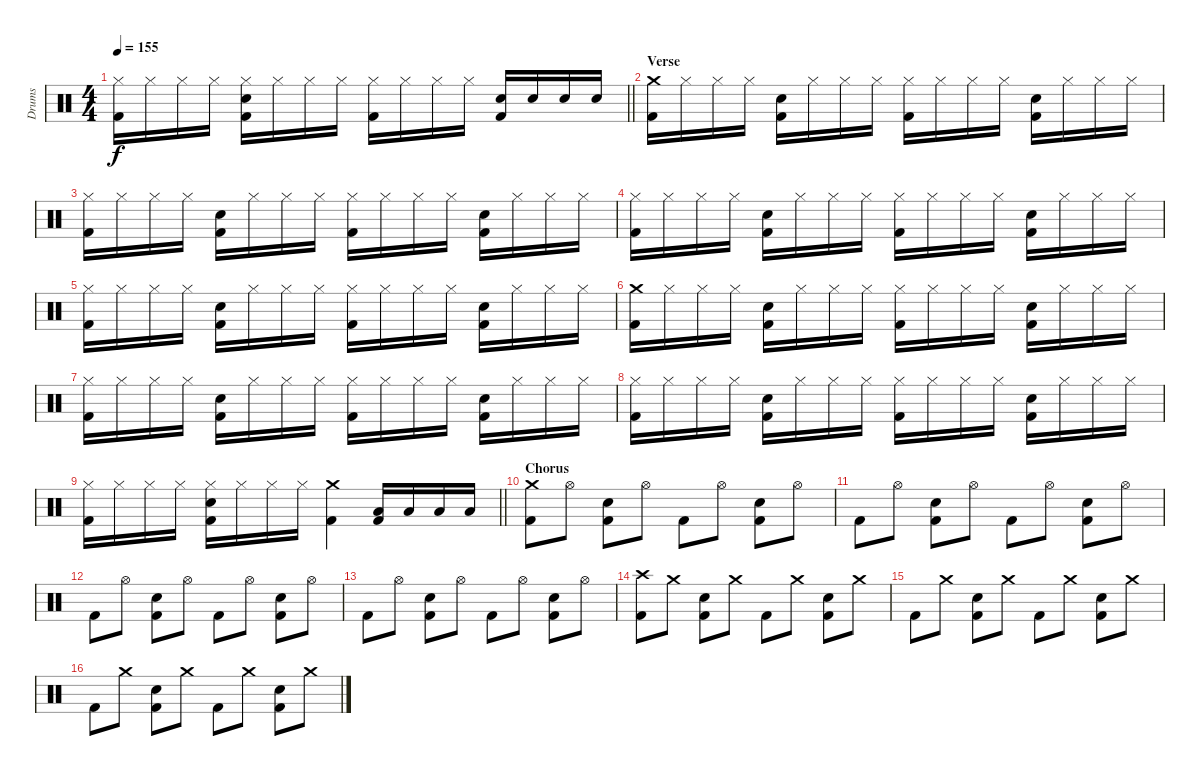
\track ("Drums" "Drums") {instrument percussion}
\staff {score}
\articulation defaults
\ts (4 4)
\tempo 155
\clef neutral
\barLineRight lightlight
\ks c
("Hi-Hat (closed)" "Kick (hit) 2").16{dy f} "Hi-Hat (closed)".16 "Hi-Hat (closed)".16 "Hi-Hat (closed)".16 ("Hi-Hat (closed)" "Electric Snare (hit)" "Kick (hit) 2").16 "Hi-Hat (closed)".16 "Hi-Hat (closed)".16 "Hi-Hat (closed)".16 ("Hi-Hat (closed)" "Kick (hit) 2").16 "Hi-Hat (closed)".16 "Hi-Hat (closed)".16 "Hi-Hat (closed)".16 ("Electric Snare (hit)" "Kick (hit) 2").16 "Electric Snare (hit)".16 "Electric Snare (hit)".16 "Electric Snare (hit)".16 |
\section ("" "Verse")
("Crash medium (hit)" "Kick (hit) 2").16 "Hi-Hat (closed)".16 "Hi-Hat (closed)".16 "Hi-Hat (closed)".16 ("Electric Snare (hit)" "Kick (hit) 2").16 "Hi-Hat (closed)".16 "Hi-Hat (closed)".16 "Hi-Hat (closed)".16 ("Hi-Hat (closed)" "Kick (hit) 2").16 "Hi-Hat (closed)".16 "Hi-Hat (closed)".16 "Hi-Hat (closed)".16 ("Electric Snare (hit)" "Kick (hit) 2").16 "Hi-Hat (closed)".16 "Hi-Hat (closed)".16 "Hi-Hat (closed)".16 |
("Hi-Hat (closed)" "Kick (hit) 2").16 "Hi-Hat (closed)".16 "Hi-Hat (closed)".16 "Hi-Hat (closed)".16 ("Electric Snare (hit)" "Kick (hit) 2").16 "Hi-Hat (closed)".16 "Hi-Hat (closed)".16 "Hi-Hat (closed)".16 ("Hi-Hat (closed)" "Kick (hit) 2").16 "Hi-Hat (closed)".16 "Hi-Hat (closed)".16 "Hi-Hat (closed)".16 ("Electric Snare (hit)" "Kick (hit) 2").16 "Hi-Hat (closed)".16 "Hi-Hat (closed)".16 "Hi-Hat (closed)".16 |
("Hi-Hat (closed)" "Kick (hit) 2").16 "Hi-Hat (closed)".16 "Hi-Hat (closed)".16 "Hi-Hat (closed)".16 ("Electric Snare (hit)" "Kick (hit) 2").16 "Hi-Hat (closed)".16 "Hi-Hat (closed)".16 "Hi-Hat (closed)".16 ("Hi-Hat (closed)" "Kick (hit) 2").16 "Hi-Hat (closed)".16 "Hi-Hat (closed)".16 "Hi-Hat (closed)".16 ("Electric Snare (hit)" "Kick (hit) 2").16 "Hi-Hat (closed)".16 "Hi-Hat (closed)".16 "Hi-Hat (closed)".16 |
("Hi-Hat (closed)" "Kick (hit) 2").16 "Hi-Hat (closed)".16 "Hi-Hat (closed)".16 "Hi-Hat (closed)".16 ("Electric Snare (hit)" "Kick (hit) 2").16 "Hi-Hat (closed)".16 "Hi-Hat (closed)".16 "Hi-Hat (closed)".16 ("Hi-Hat (closed)" "Kick (hit) 2").16 "Hi-Hat (closed)".16 "Hi-Hat (closed)".16 "Hi-Hat (closed)".16 ("Electric Snare (hit)" "Kick (hit) 2").16 "Hi-Hat (closed)".16 "Hi-Hat (closed)".16 "Hi-Hat (closed)".16 |
("Crash medium (hit)" "Kick (hit) 2").16 "Hi-Hat (closed)".16 "Hi-Hat (closed)".16 "Hi-Hat (closed)".16 ("Electric Snare (hit)" "Kick (hit) 2").16 "Hi-Hat (closed)".16 "Hi-Hat (closed)".16 "Hi-Hat (closed)".16 ("Hi-Hat (closed)" "Kick (hit) 2").16 "Hi-Hat (closed)".16 "Hi-Hat (closed)".16 "Hi-Hat (closed)".16 ("Electric Snare (hit)" "Kick (hit) 2").16 "Hi-Hat (closed)".16 "Hi-Hat (closed)".16 "Hi-Hat (closed)".16 |
("Hi-Hat (closed)" "Kick (hit) 2").16 "Hi-Hat (closed)".16 "Hi-Hat (closed)".16 "Hi-Hat (closed)".16 ("Electric Snare (hit)" "Kick (hit) 2").16 "Hi-Hat (closed)".16 "Hi-Hat (closed)".16 "Hi-Hat (closed)".16 ("Hi-Hat (closed)" "Kick (hit) 2").16 "Hi-Hat (closed)".16 "Hi-Hat (closed)".16 "Hi-Hat (closed)".16 ("Electric Snare (hit)" "Kick (hit) 2").16 "Hi-Hat (closed)".16 "Hi-Hat (closed)".16 "Hi-Hat (closed)".16 |
("Hi-Hat (closed)" "Kick (hit) 2").16 "Hi-Hat (closed)".16 "Hi-Hat (closed)".16 "Hi-Hat (closed)".16 ("Electric Snare (hit)" "Kick (hit) 2").16 "Hi-Hat (closed)".16 "Hi-Hat (closed)".16 "Hi-Hat (closed)".16 ("Hi-Hat (closed)" "Kick (hit) 2").16 "Hi-Hat (closed)".16 "Hi-Hat (closed)".16 "Hi-Hat (closed)".16 ("Electric Snare (hit)" "Kick (hit) 2").16 "Hi-Hat (closed)".16 "Hi-Hat (closed)".16 "Hi-Hat (closed)".16 |
\barLineRight lightlight
("Hi-Hat (closed)" "Kick (hit) 2").16 "Hi-Hat (closed)".16 "Hi-Hat (closed)".16 "Hi-Hat (closed)".16 ("Hi-Hat (closed)" "Electric Snare (hit)" "Kick (hit) 2").16 "Hi-Hat (closed)".16 "Hi-Hat (closed)".16 "Hi-Hat (closed)".16 ("Crash medium (hit)" "Kick (hit) 2").4 ("Low Floor Tom (hit)" "Kick (hit) 2").16 "Low Floor Tom (hit)".16 "Low Floor Tom (hit)".16 "Low Floor Tom (hit)".16 |
\section ("" "Chorus")
("Crash medium (hit)" "Kick (hit) 2").8 "Hi-Hat (open)".8 ("Electric Snare (hit)" "Kick (hit) 2").8 "Hi-Hat (open)".8 "Kick (hit) 2".8 "Hi-Hat (open)".8 ("Electric Snare (hit)" "Kick (hit) 2").8 "Hi-Hat (open)".8 |
"Kick (hit) 2".8 "Hi-Hat (open)".8 ("Electric Snare (hit)" "Kick (hit) 2").8 "Hi-Hat (open)".8 "Kick (hit) 2".8 "Hi-Hat (open)".8 ("Electric Snare (hit)" "Kick (hit) 2").8 "Hi-Hat (open)".8 |
"Kick (hit) 2".8 "Hi-Hat (open)".8 ("Electric Snare (hit)" "Kick (hit) 2").8 "Hi-Hat (open)".8 "Kick (hit) 2".8 "Hi-Hat (open)".8 ("Electric Snare (hit)" "Kick (hit) 2").8 "Hi-Hat (open)".8 |
"Kick (hit) 2".8 "Hi-Hat (open)".8 ("Electric Snare (hit)" "Kick (hit) 2").8 "Hi-Hat (open)".8 "Kick (hit) 2".8 "Hi-Hat (open)".8 ("Electric Snare (hit)" "Kick (hit) 2").8 "Hi-Hat (open)".8 |
("Crash high (hit)" "Kick (hit) 2").8 "Crash medium (hit)".8 ("Electric Snare (hit)" "Kick (hit) 2").8 "Crash medium (hit)".8 "Kick (hit) 2".8 "Crash medium (hit)".8 ("Electric Snare (hit)" "Kick (hit) 2").8 "Crash medium (hit)".8 |
"Kick (hit) 2".8 "Crash medium (hit)".8 ("Electric Snare (hit)" "Kick (hit) 2").8 "Crash medium (hit)".8 "Kick (hit) 2".8 "Crash medium (hit)".8 ("Electric Snare (hit)" "Kick (hit) 2").8 "Crash medium (hit)".8 |
"Kick (hit) 2".8 "Crash medium (hit)".8 ("Electric Snare (hit)" "Kick (hit) 2").8 "Crash medium (hit)".8 "Kick (hit) 2".8 "Crash medium (hit)".8 ("Electric Snare (hit)" "Kick (hit) 2").8 "Crash medium (hit)".8
